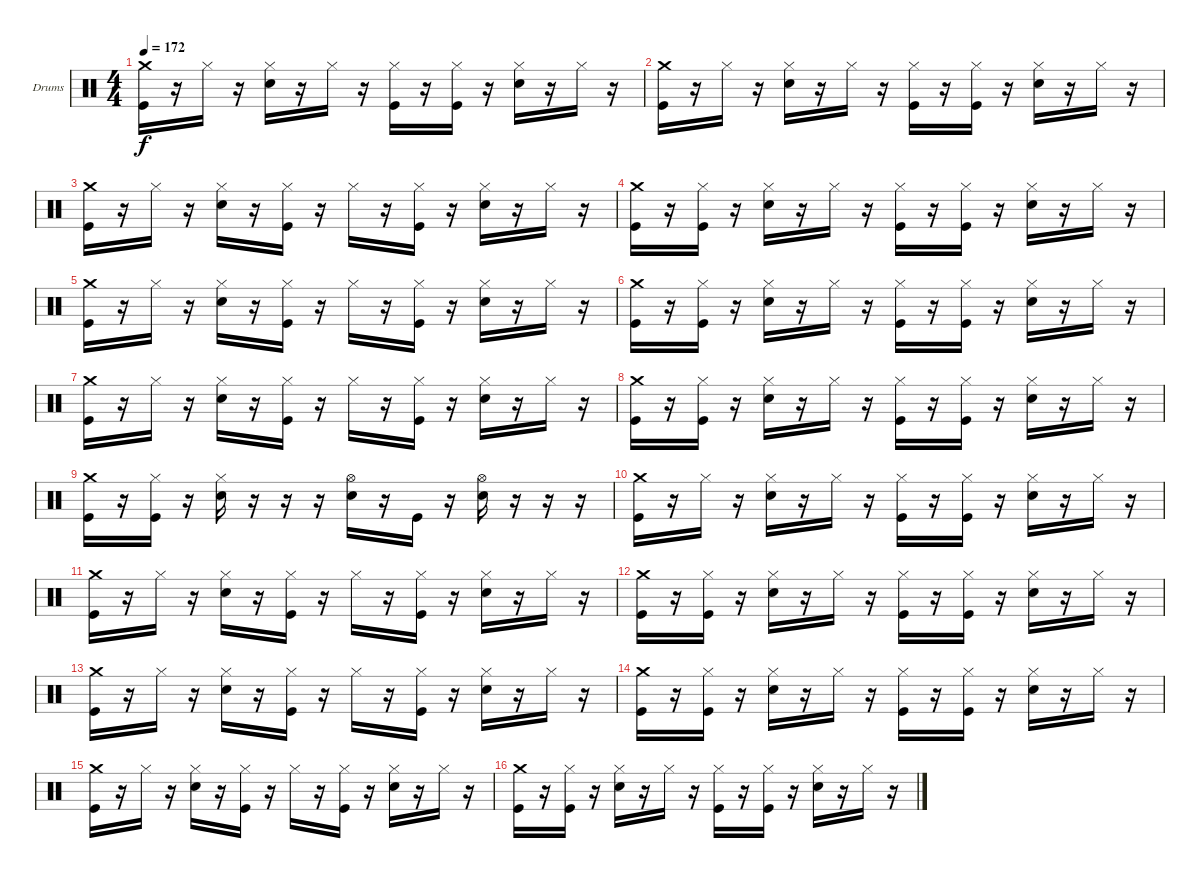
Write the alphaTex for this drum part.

\bracketExtendMode groupsimilarinstruments
\firstSystemTrackNameOrientation horizontal
\otherSystemsTrackNameOrientation horizontal
\track ("Drumkit" "Drums") {instrument percussion}
\staff {score}
\articulation defaults
\ts (4 4)
\tempo 172
\clef neutral
\ks c
("Kick (hit)" "Crash medium (hit)").16{dy f} r.16 "Hi-Hat (closed)".16 r.16 ("Snare (hit) 2" "Hi-Hat (closed)").16 r.16 "Hi-Hat (closed)".16 r.16 ("Kick (hit)" "Hi-Hat (closed)").16 r.16 ("Kick (hit)" "Hi-Hat (closed)").16 r.16 ("Snare (hit) 2" "Hi-Hat (closed)").16 r.16 "Hi-Hat (closed)".16 r.16 |
("Kick (hit)" "Crash medium (hit)").16 r.16 "Hi-Hat (closed)".16 r.16 ("Snare (hit) 2" "Hi-Hat (closed)").16 r.16 "Hi-Hat (closed)".16 r.16 ("Kick (hit)" "Hi-Hat (closed)").16 r.16 ("Kick (hit)" "Hi-Hat (closed)").16 r.16 ("Snare (hit) 2" "Hi-Hat (closed)").16 r.16 "Hi-Hat (closed)".16 r.16 |
("Kick (hit)" "Crash medium (hit)").16 r.16 "Hi-Hat (closed)".16 r.16 ("Snare (hit) 2" "Hi-Hat (closed)").16 r.16 ("Kick (hit)" "Hi-Hat (closed)").16 r.16 "Hi-Hat (closed)".16 r.16 ("Kick (hit)" "Hi-Hat (closed)").16 r.16 ("Snare (hit) 2" "Hi-Hat (closed)").16 r.16 "Hi-Hat (closed)".16 r.16 |
("Kick (hit)" "Crash medium (hit)").16 r.16 ("Kick (hit)" "Hi-Hat (closed)").16 r.16 ("Snare (hit) 2" "Hi-Hat (closed)").16 r.16 "Hi-Hat (closed)".16 r.16 ("Kick (hit)" "Hi-Hat (closed)").16 r.16 ("Kick (hit)" "Hi-Hat (closed)").16 r.16 ("Snare (hit) 2" "Hi-Hat (closed)").16 r.16 "Hi-Hat (closed)".16 r.16 |
("Kick (hit)" "Crash medium (hit)").16 r.16 "Hi-Hat (closed)".16 r.16 ("Snare (hit) 2" "Hi-Hat (closed)").16 r.16 ("Kick (hit)" "Hi-Hat (closed)").16 r.16 "Hi-Hat (closed)".16 r.16 ("Kick (hit)" "Hi-Hat (closed)").16 r.16 ("Snare (hit) 2" "Hi-Hat (closed)").16 r.16 "Hi-Hat (closed)".16 r.16 |
("Kick (hit)" "Crash medium (hit)").16 r.16 ("Kick (hit)" "Hi-Hat (closed)").16 r.16 ("Snare (hit) 2" "Hi-Hat (closed)").16 r.16 "Hi-Hat (closed)".16 r.16 ("Kick (hit)" "Hi-Hat (closed)").16 r.16 ("Kick (hit)" "Hi-Hat (closed)").16 r.16 ("Snare (hit) 2" "Hi-Hat (closed)").16 r.16 "Hi-Hat (closed)".16 r.16 |
("Kick (hit)" "Crash medium (hit)").16 r.16 "Hi-Hat (closed)".16 r.16 ("Snare (hit) 2" "Hi-Hat (closed)").16 r.16 ("Kick (hit)" "Hi-Hat (closed)").16 r.16 "Hi-Hat (closed)".16 r.16 ("Kick (hit)" "Hi-Hat (closed)").16 r.16 ("Snare (hit) 2" "Hi-Hat (closed)").16 r.16 "Hi-Hat (closed)".16 r.16 |
("Kick (hit)" "Crash medium (hit)").16 r.16 ("Kick (hit)" "Hi-Hat (closed)").16 r.16 ("Snare (hit) 2" "Hi-Hat (closed)").16 r.16 "Hi-Hat (closed)".16 r.16 ("Kick (hit)" "Hi-Hat (closed)").16 r.16 ("Kick (hit)" "Hi-Hat (closed)").16 r.16 ("Snare (hit) 2" "Hi-Hat (closed)").16 r.16 "Hi-Hat (closed)".16 r.16 |
("Kick (hit)" "Crash medium (hit)").16 r.16 ("Kick (hit)" "Hi-Hat (closed)").16 r.16 ("Snare (hit) 2" "Hi-Hat (closed)").16 r.16 r.16 r.16 ("Snare (hit) 2" "Hi-Hat (open)").16 r.16 "Kick (hit)".16 r.16 ("Snare (hit) 2" "Hi-Hat (open)").16 r.16 r.16 r.16 |
("Kick (hit)" "Crash medium (hit)").16 r.16 "Hi-Hat (closed)".16 r.16 ("Snare (hit) 2" "Hi-Hat (closed)").16 r.16 "Hi-Hat (closed)".16 r.16 ("Kick (hit)" "Hi-Hat (closed)").16 r.16 ("Kick (hit)" "Hi-Hat (closed)").16 r.16 ("Snare (hit) 2" "Hi-Hat (closed)").16 r.16 "Hi-Hat (closed)".16 r.16 |
("Kick (hit)" "Crash medium (hit)").16 r.16 "Hi-Hat (closed)".16 r.16 ("Snare (hit) 2" "Hi-Hat (closed)").16 r.16 ("Kick (hit)" "Hi-Hat (closed)").16 r.16 "Hi-Hat (closed)".16 r.16 ("Kick (hit)" "Hi-Hat (closed)").16 r.16 ("Snare (hit) 2" "Hi-Hat (closed)").16 r.16 "Hi-Hat (closed)".16 r.16 |
("Kick (hit)" "Crash medium (hit)").16 r.16 ("Kick (hit)" "Hi-Hat (closed)").16 r.16 ("Snare (hit) 2" "Hi-Hat (closed)").16 r.16 "Hi-Hat (closed)".16 r.16 ("Kick (hit)" "Hi-Hat (closed)").16 r.16 ("Kick (hit)" "Hi-Hat (closed)").16 r.16 ("Snare (hit) 2" "Hi-Hat (closed)").16 r.16 "Hi-Hat (closed)".16 r.16 |
("Kick (hit)" "Crash medium (hit)").16 r.16 "Hi-Hat (closed)".16 r.16 ("Snare (hit) 2" "Hi-Hat (closed)").16 r.16 ("Kick (hit)" "Hi-Hat (closed)").16 r.16 "Hi-Hat (closed)".16 r.16 ("Kick (hit)" "Hi-Hat (closed)").16 r.16 ("Snare (hit) 2" "Hi-Hat (closed)").16 r.16 "Hi-Hat (closed)".16 r.16 |
("Kick (hit)" "Crash medium (hit)").16 r.16 ("Kick (hit)" "Hi-Hat (closed)").16 r.16 ("Snare (hit) 2" "Hi-Hat (closed)").16 r.16 "Hi-Hat (closed)".16 r.16 ("Kick (hit)" "Hi-Hat (closed)").16 r.16 ("Kick (hit)" "Hi-Hat (closed)").16 r.16 ("Snare (hit) 2" "Hi-Hat (closed)").16 r.16 "Hi-Hat (closed)".16 r.16 |
("Kick (hit)" "Crash medium (hit)").16 r.16 "Hi-Hat (closed)".16 r.16 ("Snare (hit) 2" "Hi-Hat (closed)").16 r.16 ("Kick (hit)" "Hi-Hat (closed)").16 r.16 "Hi-Hat (closed)".16 r.16 ("Kick (hit)" "Hi-Hat (closed)").16 r.16 ("Snare (hit) 2" "Hi-Hat (closed)").16 r.16 "Hi-Hat (closed)".16 r.16 |
("Kick (hit)" "Crash medium (hit)").16 r.16 ("Kick (hit)" "Hi-Hat (closed)").16 r.16 ("Snare (hit) 2" "Hi-Hat (closed)").16 r.16 "Hi-Hat (closed)".16 r.16 ("Kick (hit)" "Hi-Hat (closed)").16 r.16 ("Kick (hit)" "Hi-Hat (closed)").16 r.16 ("Snare (hit) 2" "Hi-Hat (closed)").16 r.16 "Hi-Hat (closed)".16 r.16
